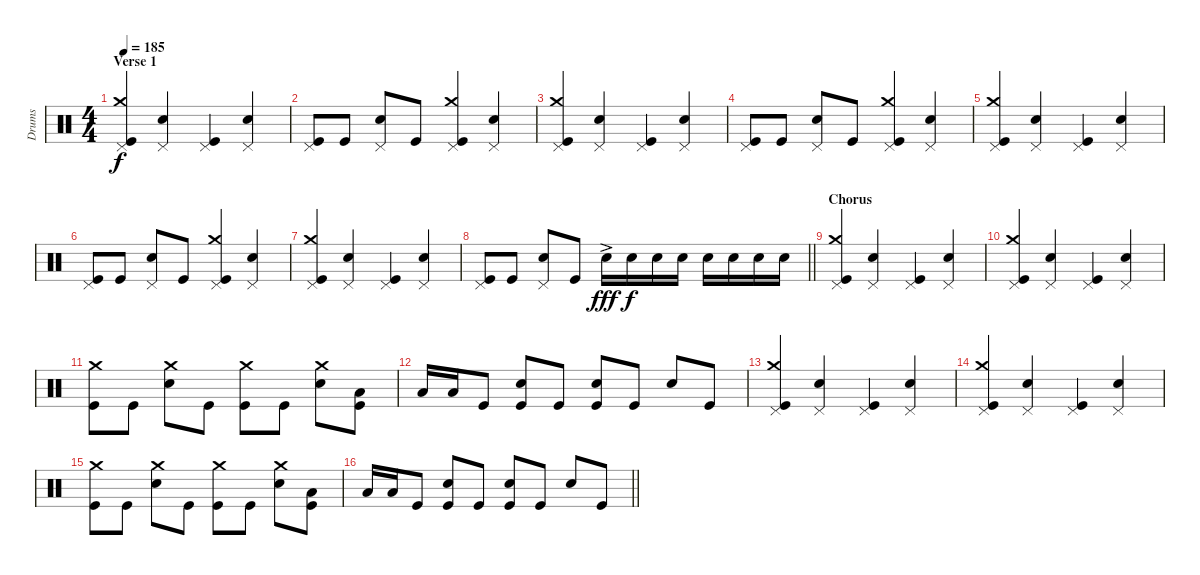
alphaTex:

\track ("Drums" "Drums") {instrument percussion}
\staff {score}
\articulation defaults
\ts (4 4)
\section ("" "Verse 1")
\tempo 185
\clef neutral
\ks c
("Pedal Hi-Hat (hit)" "Crash medium (hit)" "Kick (hit)").4{dy f} ("Pedal Hi-Hat (hit)" "Snare (hit) 2").4 ("Pedal Hi-Hat (hit)" "Kick (hit)").4 ("Pedal Hi-Hat (hit)" "Snare (hit) 2").4 |
("Pedal Hi-Hat (hit)" "Kick (hit)").8 "Kick (hit)".8 ("Pedal Hi-Hat (hit)" "Snare (hit) 2").8 "Kick (hit)".8 ("Pedal Hi-Hat (hit)" "Crash medium (hit)" "Kick (hit)").4 ("Pedal Hi-Hat (hit)" "Snare (hit) 2").4 |
("Pedal Hi-Hat (hit)" "Crash medium (hit)" "Kick (hit)").4 ("Pedal Hi-Hat (hit)" "Snare (hit) 2").4 ("Pedal Hi-Hat (hit)" "Kick (hit)").4 ("Pedal Hi-Hat (hit)" "Snare (hit) 2").4 |
("Pedal Hi-Hat (hit)" "Kick (hit)").8 "Kick (hit)".8 ("Pedal Hi-Hat (hit)" "Snare (hit) 2").8 "Kick (hit)".8 ("Pedal Hi-Hat (hit)" "Crash medium (hit)" "Kick (hit)").4 ("Pedal Hi-Hat (hit)" "Snare (hit) 2").4 |
("Pedal Hi-Hat (hit)" "Crash medium (hit)" "Kick (hit)").4 ("Pedal Hi-Hat (hit)" "Snare (hit) 2").4 ("Pedal Hi-Hat (hit)" "Kick (hit)").4 ("Pedal Hi-Hat (hit)" "Snare (hit) 2").4 |
("Pedal Hi-Hat (hit)" "Kick (hit)").8 "Kick (hit)".8 ("Pedal Hi-Hat (hit)" "Snare (hit) 2").8 "Kick (hit)".8 ("Pedal Hi-Hat (hit)" "Crash medium (hit)" "Kick (hit)").4 ("Pedal Hi-Hat (hit)" "Snare (hit) 2").4 |
("Pedal Hi-Hat (hit)" "Crash medium (hit)" "Kick (hit)").4 ("Pedal Hi-Hat (hit)" "Snare (hit) 2").4 ("Pedal Hi-Hat (hit)" "Kick (hit)").4 ("Pedal Hi-Hat (hit)" "Snare (hit) 2").4 |
\barLineRight lightlight
("Pedal Hi-Hat (hit)" "Kick (hit)").8 "Kick (hit)".8 ("Pedal Hi-Hat (hit)" "Snare (hit) 2").8 "Kick (hit)".8 "Snare (hit) 2"{ac}.16{dy fff} "Snare (hit) 2".16{dy f} "Snare (hit) 2".16 "Snare (hit) 2".16 "Snare (hit) 2".16 "Snare (hit) 2".16 "Snare (hit) 2".16 "Snare (hit) 2".16 |
\section ("" "Chorus")
("Pedal Hi-Hat (hit)" "Crash medium (hit)" "Kick (hit)").4 ("Pedal Hi-Hat (hit)" "Snare (hit) 2").4 ("Pedal Hi-Hat (hit)" "Kick (hit)").4 ("Pedal Hi-Hat (hit)" "Snare (hit) 2").4 |
("Pedal Hi-Hat (hit)" "Crash medium (hit)" "Kick (hit)").4 ("Pedal Hi-Hat (hit)" "Snare (hit) 2").4 ("Pedal Hi-Hat (hit)" "Kick (hit)").4 ("Pedal Hi-Hat (hit)" "Snare (hit) 2").4 |
("Crash medium (hit)" "Kick (hit)").8 "Kick (hit)".8 ("Crash medium (hit)" "Snare (hit) 2").8 "Kick (hit)".8 ("Crash medium (hit)" "Kick (hit)").8 "Kick (hit)".8 ("Crash medium (hit)" "Snare (hit) 2").8 ("Low Tom (hit)" "Kick (hit)").8 |
"Low Tom (hit)".16 "Low Tom (hit)".16 "Kick (hit)".8 ("Snare (hit) 2" "Kick (hit)").8 "Kick (hit)".8 ("Snare (hit) 2" "Kick (hit)").8 "Kick (hit)".8 "Snare (hit) 2".8 "Kick (hit)".8 |
("Pedal Hi-Hat (hit)" "Crash medium (hit)" "Kick (hit)").4 ("Pedal Hi-Hat (hit)" "Snare (hit) 2").4 ("Pedal Hi-Hat (hit)" "Kick (hit)").4 ("Pedal Hi-Hat (hit)" "Snare (hit) 2").4 |
("Pedal Hi-Hat (hit)" "Crash medium (hit)" "Kick (hit)").4 ("Pedal Hi-Hat (hit)" "Snare (hit) 2").4 ("Pedal Hi-Hat (hit)" "Kick (hit)").4 ("Pedal Hi-Hat (hit)" "Snare (hit) 2").4 |
("Crash medium (hit)" "Kick (hit)").8 "Kick (hit)".8 ("Crash medium (hit)" "Snare (hit) 2").8 "Kick (hit)".8 ("Crash medium (hit)" "Kick (hit)").8 "Kick (hit)".8 ("Crash medium (hit)" "Snare (hit) 2").8 ("Low Tom (hit)" "Kick (hit)").8 |
\barLineRight lightlight "Low Tom (hit)".16 "Low Tom (hit)".16 "Kick (hit)".8
("Snare (hit) 2" "Kick (hit)").8 "Kick (hit)".8 ("Snare (hit) 2" "Kick (hit)").8 "Kick (hit)".8 "Snare (hit) 2".8 "Kick (hit)".8
